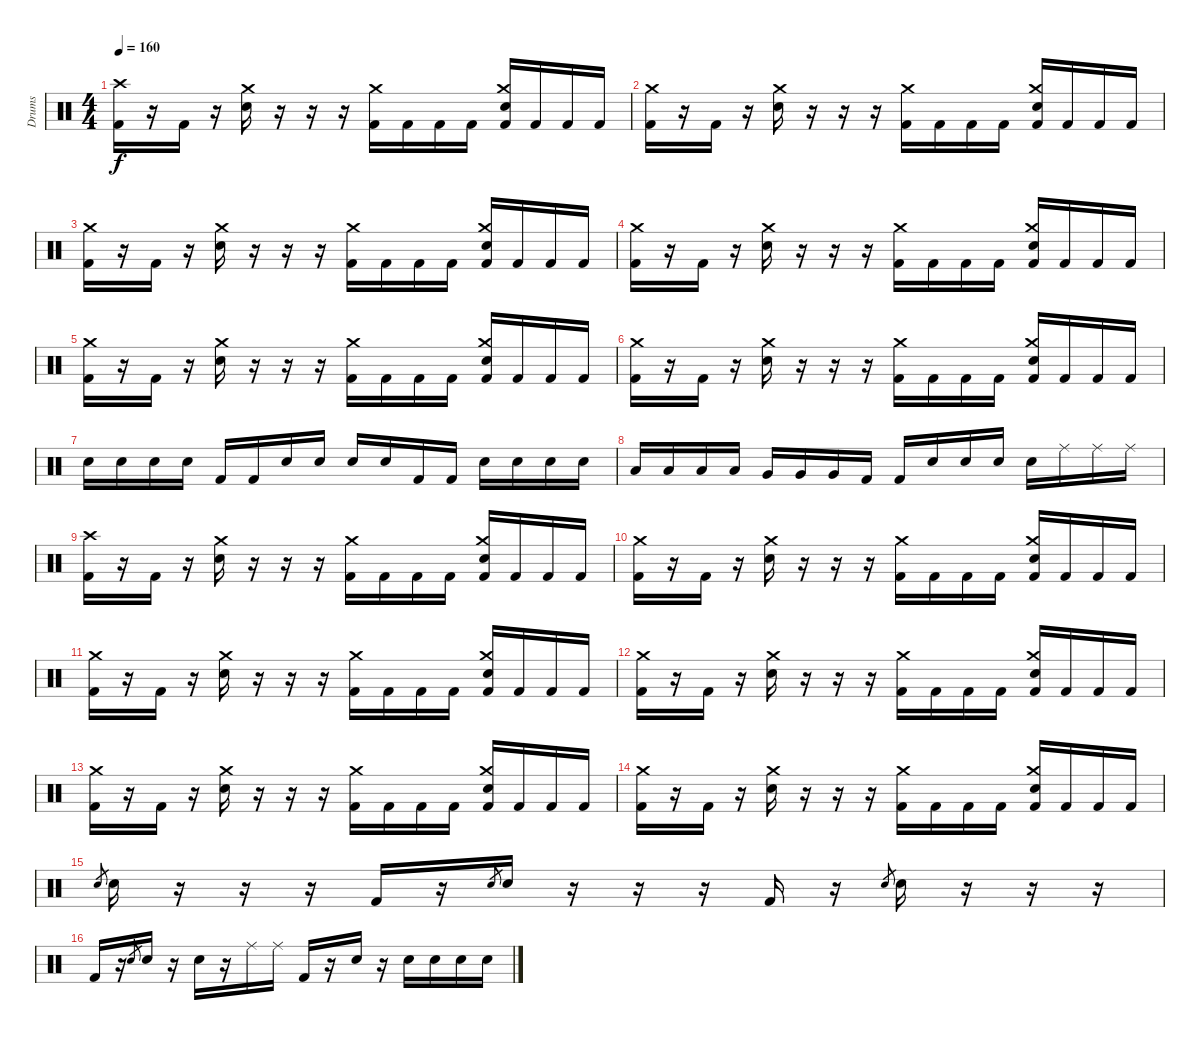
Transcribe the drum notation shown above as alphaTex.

\track ("Drums" "Drums") {instrument percussion}
\staff {score}
\articulation defaults
\ts (4 4)
\tempo 160
\clef neutral
\ks c
("Crash high (hit)" "Kick (hit) 2").16{dy f} r.16 "Kick (hit) 2".16 r.16 ("Crash medium (hit)" "Electric Snare (hit)").16 r.16 r.16 r.16 ("Crash medium (hit)" "Kick (hit) 2").16 "Kick (hit) 2".16 "Kick (hit) 2".16 "Kick (hit) 2".16 ("Crash medium (hit)" "Electric Snare (hit)" "Kick (hit) 2").16 "Kick (hit) 2".16 "Kick (hit) 2".16 "Kick (hit) 2".16 |
("Crash medium (hit)" "Kick (hit) 2").16 r.16 "Kick (hit) 2".16 r.16 ("Crash medium (hit)" "Electric Snare (hit)").16 r.16 r.16 r.16 ("Crash medium (hit)" "Kick (hit) 2").16 "Kick (hit) 2".16 "Kick (hit) 2".16 "Kick (hit) 2".16 ("Crash medium (hit)" "Electric Snare (hit)" "Kick (hit) 2").16 "Kick (hit) 2".16 "Kick (hit) 2".16 "Kick (hit) 2".16 |
("Crash medium (hit)" "Kick (hit) 2").16 r.16 "Kick (hit) 2".16 r.16 ("Crash medium (hit)" "Electric Snare (hit)").16 r.16 r.16 r.16 ("Crash medium (hit)" "Kick (hit) 2").16 "Kick (hit) 2".16 "Kick (hit) 2".16 "Kick (hit) 2".16 ("Crash medium (hit)" "Electric Snare (hit)" "Kick (hit) 2").16 "Kick (hit) 2".16 "Kick (hit) 2".16 "Kick (hit) 2".16 |
("Crash medium (hit)" "Kick (hit) 2").16 r.16 "Kick (hit) 2".16 r.16 ("Crash medium (hit)" "Electric Snare (hit)").16 r.16 r.16 r.16 ("Crash medium (hit)" "Kick (hit) 2").16 "Kick (hit) 2".16 "Kick (hit) 2".16 "Kick (hit) 2".16 ("Crash medium (hit)" "Electric Snare (hit)" "Kick (hit) 2").16 "Kick (hit) 2".16 "Kick (hit) 2".16 "Kick (hit) 2".16 |
("Crash medium (hit)" "Kick (hit) 2").16 r.16 "Kick (hit) 2".16 r.16 ("Crash medium (hit)" "Electric Snare (hit)").16 r.16 r.16 r.16 ("Crash medium (hit)" "Kick (hit) 2").16 "Kick (hit) 2".16 "Kick (hit) 2".16 "Kick (hit) 2".16 ("Crash medium (hit)" "Electric Snare (hit)" "Kick (hit) 2").16 "Kick (hit) 2".16 "Kick (hit) 2".16 "Kick (hit) 2".16 |
("Crash medium (hit)" "Kick (hit) 2").16 r.16 "Kick (hit) 2".16 r.16 ("Crash medium (hit)" "Electric Snare (hit)").16 r.16 r.16 r.16 ("Crash medium (hit)" "Kick (hit) 2").16 "Kick (hit) 2".16 "Kick (hit) 2".16 "Kick (hit) 2".16 ("Crash medium (hit)" "Electric Snare (hit)" "Kick (hit) 2").16 "Kick (hit) 2".16 "Kick (hit) 2".16 "Kick (hit) 2".16 |
"Electric Snare (hit)".16 "Electric Snare (hit)".16 "Electric Snare (hit)".16 "Electric Snare (hit)".16 "Kick (hit) 2".16 "Kick (hit) 2".16 "Electric Snare (hit)".16 "Electric Snare (hit)".16 "Electric Snare (hit)".16 "Electric Snare (hit)".16 "Kick (hit) 2".16 "Kick (hit) 2".16 "Electric Snare (hit)".16 "Electric Snare (hit)".16 "Electric Snare (hit)".16 "Electric Snare (hit)".16 |
"Low Tom (hit)".16 "Low Tom (hit)".16 "Low Tom (hit)".16 "Low Tom (hit)".16 "Very Low Tom (hit)".16 "Very Low Tom (hit)".16 "Very Low Tom (hit)".16 "Kick (hit) 2".16 "Kick (hit) 2".16 "Electric Snare (hit)".16 "Electric Snare (hit)".16 "Electric Snare (hit)".16 "Electric Snare (hit)".16 "Ride (middle)".16 "Ride (middle)".16 "Ride (middle)".16 |
("Crash high (hit)" "Kick (hit) 2").16 r.16 "Kick (hit) 2".16 r.16 ("Crash medium (hit)" "Electric Snare (hit)").16 r.16 r.16 r.16 ("Crash medium (hit)" "Kick (hit) 2").16 "Kick (hit) 2".16 "Kick (hit) 2".16 "Kick (hit) 2".16 ("Crash medium (hit)" "Electric Snare (hit)" "Kick (hit) 2").16 "Kick (hit) 2".16 "Kick (hit) 2".16 "Kick (hit) 2".16 |
("Crash medium (hit)" "Kick (hit) 2").16 r.16 "Kick (hit) 2".16 r.16 ("Crash medium (hit)" "Electric Snare (hit)").16 r.16 r.16 r.16 ("Crash medium (hit)" "Kick (hit) 2").16 "Kick (hit) 2".16 "Kick (hit) 2".16 "Kick (hit) 2".16 ("Crash medium (hit)" "Electric Snare (hit)" "Kick (hit) 2").16 "Kick (hit) 2".16 "Kick (hit) 2".16 "Kick (hit) 2".16 |
("Crash medium (hit)" "Kick (hit) 2").16 r.16 "Kick (hit) 2".16 r.16 ("Crash medium (hit)" "Electric Snare (hit)").16 r.16 r.16 r.16 ("Crash medium (hit)" "Kick (hit) 2").16 "Kick (hit) 2".16 "Kick (hit) 2".16 "Kick (hit) 2".16 ("Crash medium (hit)" "Electric Snare (hit)" "Kick (hit) 2").16 "Kick (hit) 2".16 "Kick (hit) 2".16 "Kick (hit) 2".16 |
("Crash medium (hit)" "Kick (hit) 2").16 r.16 "Kick (hit) 2".16 r.16 ("Crash medium (hit)" "Electric Snare (hit)").16 r.16 r.16 r.16 ("Crash medium (hit)" "Kick (hit) 2").16 "Kick (hit) 2".16 "Kick (hit) 2".16 "Kick (hit) 2".16 ("Crash medium (hit)" "Electric Snare (hit)" "Kick (hit) 2").16 "Kick (hit) 2".16 "Kick (hit) 2".16 "Kick (hit) 2".16 |
("Crash medium (hit)" "Kick (hit) 2").16 r.16 "Kick (hit) 2".16 r.16 ("Crash medium (hit)" "Electric Snare (hit)").16 r.16 r.16 r.16 ("Crash medium (hit)" "Kick (hit) 2").16 "Kick (hit) 2".16 "Kick (hit) 2".16 "Kick (hit) 2".16 ("Crash medium (hit)" "Electric Snare (hit)" "Kick (hit) 2").16 "Kick (hit) 2".16 "Kick (hit) 2".16 "Kick (hit) 2".16 |
("Crash medium (hit)" "Kick (hit) 2").16 r.16 "Kick (hit) 2".16 r.16 ("Crash medium (hit)" "Electric Snare (hit)").16 r.16 r.16 r.16 ("Crash medium (hit)" "Kick (hit) 2").16 "Kick (hit) 2".16 "Kick (hit) 2".16 "Kick (hit) 2".16 ("Crash medium (hit)" "Electric Snare (hit)" "Kick (hit) 2").16 "Kick (hit) 2".16 "Kick (hit) 2".16 "Kick (hit) 2".16 |
"Electric Snare (hit)".8{gr} "Electric Snare (hit)".16 r.16 r.16 r.16 "Kick (hit) 2".16 r.16 "Electric Snare (hit)".8{gr} "Electric Snare (hit)".16 r.16 r.16 r.16 "Kick (hit) 2".16 r.16 "Electric Snare (hit)".8{gr} "Electric Snare (hit)".16 r.16 r.16 r.16 |
"Kick (hit) 2".16 r.16 "Electric Snare (hit)".8{gr} "Electric Snare (hit)".16 r.16 "Electric Snare (hit)".16 r.16 "Ride (middle)".16 "Ride (middle)".16 "Kick (hit) 2".16 r.16 "Electric Snare (hit)".16 r.16 "Electric Snare (hit)".16 "Electric Snare (hit)".16 "Electric Snare (hit)".16 "Electric Snare (hit)".16
